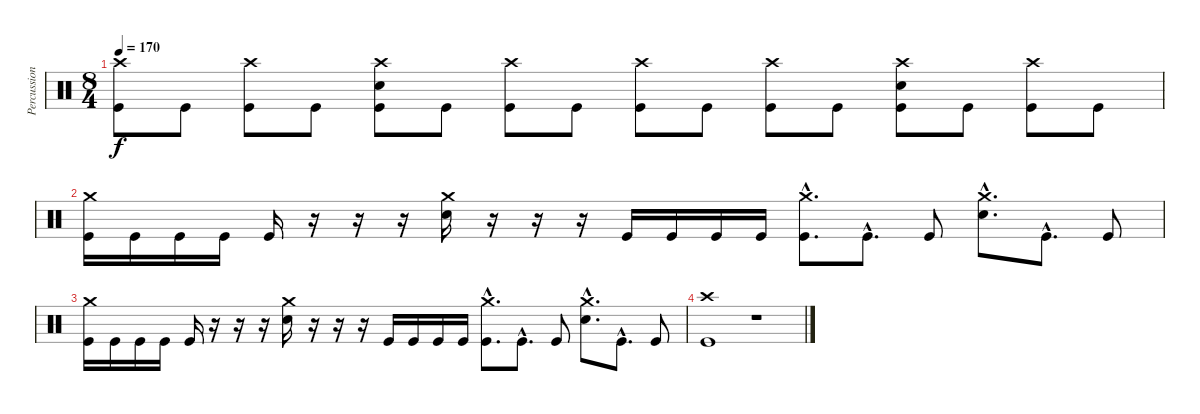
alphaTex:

\track ("Percussion" "Percussion") {instrument percussion}
\staff {score}
\articulation defaults
\ts (8 4)
\tempo 170
\clef neutral
\ks c
("Crash high (hit)" "Kick (hit)").8{dy f} "Kick (hit)".8 ("Crash high (hit)" "Kick (hit)").8 "Kick (hit)".8 ("Crash high (hit)" "Snare (hit) 2" "Kick (hit)").8 "Kick (hit)".8 ("Crash high (hit)" "Kick (hit)").8 "Kick (hit)".8 ("Crash high (hit)" "Kick (hit)").8 "Kick (hit)".8 ("Crash high (hit)" "Kick (hit)").8 "Kick (hit)".8 ("Crash high (hit)" "Snare (hit) 2" "Kick (hit)").8 "Kick (hit)".8 ("Crash high (hit)" "Kick (hit)").8 "Kick (hit)".8 |
("Crash medium (hit)" "Kick (hit)").16 "Kick (hit)".16 "Kick (hit)".16 "Kick (hit)".16 "Kick (hit)".16 r.16 r.16 r.16 ("Crash medium (hit)" "Snare (hit) 2").16 r.16 r.16 r.16 "Kick (hit)".16 "Kick (hit)".16 "Kick (hit)".16 "Kick (hit)".16 ("Crash medium (hit)"{hac} "Kick (hit)"{hac}).8{d} "Kick (hit)"{hac}.8{d} "Kick (hit)".8 ("Crash medium (hit)"{hac} "Snare (hit) 2"{hac}).8{d} "Kick (hit)"{hac}.8{d} "Kick (hit)".8 |
("Crash medium (hit)" "Kick (hit)").16 "Kick (hit)".16 "Kick (hit)".16 "Kick (hit)".16 "Kick (hit)".16 r.16 r.16 r.16 ("Crash medium (hit)" "Snare (hit) 2").16 r.16 r.16 r.16 "Kick (hit)".16 "Kick (hit)".16 "Kick (hit)".16 "Kick (hit)".16 ("Crash medium (hit)"{hac} "Kick (hit)"{hac}).8{d} "Kick (hit)"{hac}.8{d} "Kick (hit)".8 ("Crash medium (hit)"{hac} "Snare (hit) 2"{hac}).8{d} "Kick (hit)"{hac}.8{d} "Kick (hit)".8 |
("Crash high (hit)" "Kick (hit)").1 r.1
